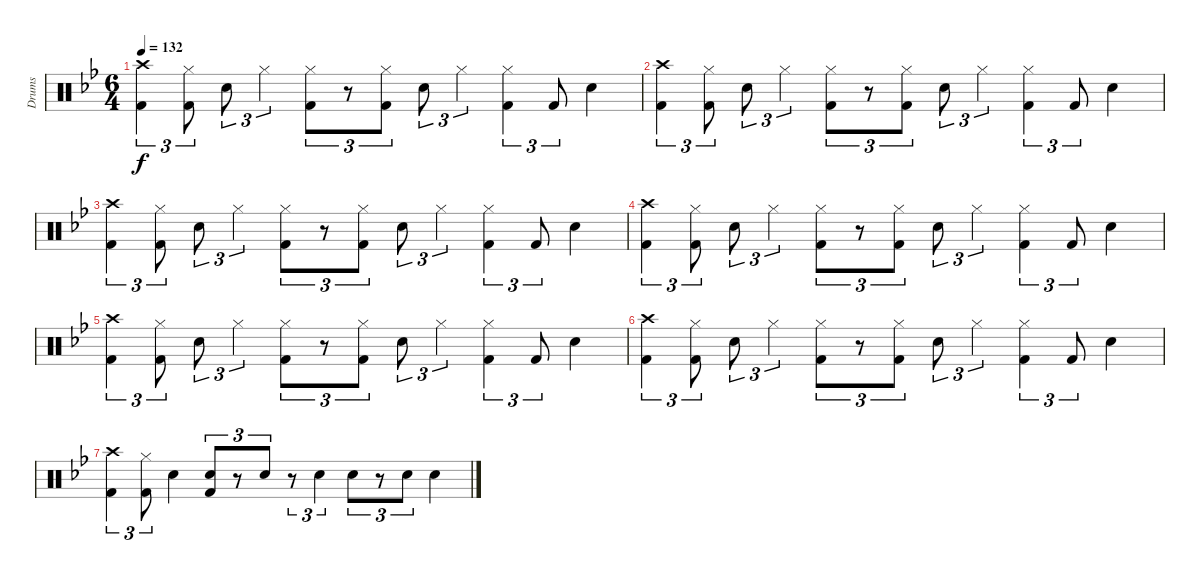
\track ("Drums" "Drums") {instrument percussion}
\staff {score}
\articulation defaults
\ts (6 4)
\tempo 132
\clef neutral
\ks bb
("Crash high (hit)" "Kick (hit) 2").4{tu (3 2) dy f} ("Hi-Hat (closed)" "Kick (hit) 2").8{tu (3 2)} "Electric Snare (hit)".8{tu (3 2)} "Hi-Hat (closed)".4{tu (3 2)} ("Hi-Hat (closed)" "Kick (hit) 2").8{tu (3 2)} r.8{tu (3 2)} ("Hi-Hat (closed)" "Kick (hit) 2").8{tu (3 2)} "Electric Snare (hit)".8{tu (3 2)} "Hi-Hat (closed)".4{tu (3 2)} ("Hi-Hat (closed)" "Kick (hit) 2").4{tu (3 2)} "Kick (hit) 2".8{tu (3 2)} "Electric Snare (hit)".4 |
("Crash high (hit)" "Kick (hit) 2").4{tu (3 2)} ("Hi-Hat (closed)" "Kick (hit) 2").8{tu (3 2)} "Electric Snare (hit)".8{tu (3 2)} "Hi-Hat (closed)".4{tu (3 2)} ("Hi-Hat (closed)" "Kick (hit) 2").8{tu (3 2)} r.8{tu (3 2)} ("Hi-Hat (closed)" "Kick (hit) 2").8{tu (3 2)} "Electric Snare (hit)".8{tu (3 2)} "Hi-Hat (closed)".4{tu (3 2)} ("Hi-Hat (closed)" "Kick (hit) 2").4{tu (3 2)} "Kick (hit) 2".8{tu (3 2)} "Electric Snare (hit)".4 |
("Crash high (hit)" "Kick (hit) 2").4{tu (3 2)} ("Hi-Hat (closed)" "Kick (hit) 2").8{tu (3 2)} "Electric Snare (hit)".8{tu (3 2)} "Hi-Hat (closed)".4{tu (3 2)} ("Hi-Hat (closed)" "Kick (hit) 2").8{tu (3 2)} r.8{tu (3 2)} ("Hi-Hat (closed)" "Kick (hit) 2").8{tu (3 2)} "Electric Snare (hit)".8{tu (3 2)} "Hi-Hat (closed)".4{tu (3 2)} ("Hi-Hat (closed)" "Kick (hit) 2").4{tu (3 2)} "Kick (hit) 2".8{tu (3 2)} "Electric Snare (hit)".4 |
("Crash high (hit)" "Kick (hit) 2").4{tu (3 2)} ("Hi-Hat (closed)" "Kick (hit) 2").8{tu (3 2)} "Electric Snare (hit)".8{tu (3 2)} "Hi-Hat (closed)".4{tu (3 2)} ("Hi-Hat (closed)" "Kick (hit) 2").8{tu (3 2)} r.8{tu (3 2)} ("Hi-Hat (closed)" "Kick (hit) 2").8{tu (3 2)} "Electric Snare (hit)".8{tu (3 2)} "Hi-Hat (closed)".4{tu (3 2)} ("Hi-Hat (closed)" "Kick (hit) 2").4{tu (3 2)} "Kick (hit) 2".8{tu (3 2)} "Electric Snare (hit)".4 |
("Crash high (hit)" "Kick (hit) 2").4{tu (3 2)} ("Hi-Hat (closed)" "Kick (hit) 2").8{tu (3 2)} "Electric Snare (hit)".8{tu (3 2)} "Hi-Hat (closed)".4{tu (3 2)} ("Hi-Hat (closed)" "Kick (hit) 2").8{tu (3 2)} r.8{tu (3 2)} ("Hi-Hat (closed)" "Kick (hit) 2").8{tu (3 2)} "Electric Snare (hit)".8{tu (3 2)} "Hi-Hat (closed)".4{tu (3 2)} ("Hi-Hat (closed)" "Kick (hit) 2").4{tu (3 2)} "Kick (hit) 2".8{tu (3 2)} "Electric Snare (hit)".4 |
("Crash high (hit)" "Kick (hit) 2").4{tu (3 2)} ("Hi-Hat (closed)" "Kick (hit) 2").8{tu (3 2)} "Electric Snare (hit)".8{tu (3 2)} "Hi-Hat (closed)".4{tu (3 2)} ("Hi-Hat (closed)" "Kick (hit) 2").8{tu (3 2)} r.8{tu (3 2)} ("Hi-Hat (closed)" "Kick (hit) 2").8{tu (3 2)} "Electric Snare (hit)".8{tu (3 2)} "Hi-Hat (closed)".4{tu (3 2)} ("Hi-Hat (closed)" "Kick (hit) 2").4{tu (3 2)} "Kick (hit) 2".8{tu (3 2)} "Electric Snare (hit)".4 |
("Crash high (hit)" "Kick (hit) 2").4{tu (3 2)} ("Hi-Hat (closed)" "Kick (hit) 2").8{tu (3 2)} "Electric Snare (hit)".4 ("Electric Snare (hit)" "Kick (hit) 2").8{tu (3 2)} r.8{tu (3 2)} "Electric Snare (hit)".8{tu (3 2)} r.8{tu (3 2)} "Electric Snare (hit)".4{tu (3 2)} "Electric Snare (hit)".8{tu (3 2)} r.8{tu (3 2)} "Electric Snare (hit)".8{tu (3 2)} "Electric Snare (hit)".4
